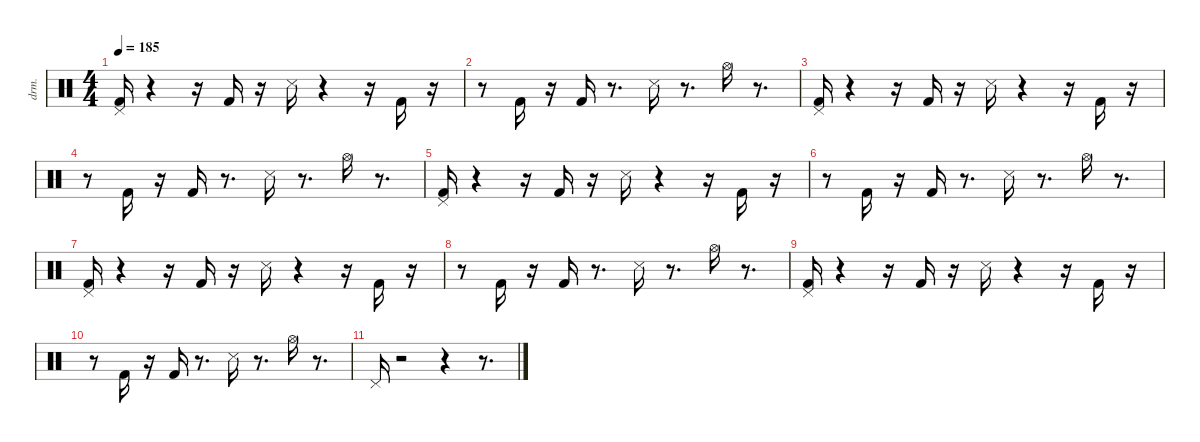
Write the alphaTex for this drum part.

\defaultSystemsLayout 4
\hideDynamics
\bracketExtendMode nobrackets
\otherSystemsTrackNameOrientation horizontal
\track ("drums" "drm.") {instrument percussion}
\staff {score}
\articulation defaults
\ts (4 4)
\tempo 185
\clef neutral
\ks aminor
("Kick (hit) 2" "Pedal Hi-Hat (hit)"{acc #}).16{dy fff beam Up} r.4{beam Up} r.16{beam Up} "Kick (hit) 2".16{dy ff beam Up} r.16{beam Up} "Snare (side stick) 3"{acc #}.16{beam Down} r.4{beam Down} r.16{beam Down} "Kick (hit) 2".16{beam Up} r.16{beam Up} |
r.8{beam Down} "Kick (hit) 2".16{dy f beam Up} r.16{beam Up} "Kick (hit) 2".16{dy ff beam Up} r.8{d beam Up} "Snare (side stick) 3"{acc #}.16{beam Down} r.8{d beam Down} "Hi-Hat (open)"{acc #}.16{beam Down} r.8{d beam Down} |
("Kick (hit) 2" "Pedal Hi-Hat (hit)"{acc #}).16{dy fff beam Up} r.4{beam Up} r.16{beam Up} "Kick (hit) 2".16{dy ff beam Up} r.16{beam Up} "Snare (side stick) 3"{acc #}.16{beam Down} r.4{beam Down} r.16{beam Down} "Kick (hit) 2".16{beam Up} r.16{beam Up} |
r.8{beam Down} "Kick (hit) 2".16{dy f beam Up} r.16{beam Up} "Kick (hit) 2".16{dy ff beam Up} r.8{d beam Up} "Snare (side stick) 3"{acc #}.16{beam Down} r.8{d beam Down} "Hi-Hat (open)"{acc #}.16{beam Down} r.8{d beam Down} |
("Kick (hit) 2" "Pedal Hi-Hat (hit)"{acc #}).16{beam Up} r.4{beam Up} r.16{beam Up} "Kick (hit) 2".16{beam Up} r.16{beam Up} "Snare (side stick) 3"{acc #}.16{beam Down} r.4{beam Down} r.16{beam Down} "Kick (hit) 2".16{beam Up} r.16{beam Up} |
r.8{beam Down} "Kick (hit) 2".16{dy f beam Up} r.16{beam Up} "Kick (hit) 2".16{dy ff beam Up} r.8{d beam Up} "Snare (side stick) 3"{acc #}.16{beam Down} r.8{d beam Down} "Hi-Hat (open)"{acc #}.16{beam Down} r.8{d beam Down} |
("Kick (hit) 2" "Pedal Hi-Hat (hit)"{acc #}).16{dy fff beam Up} r.4{beam Up} r.16{beam Up} "Kick (hit) 2".16{dy ff beam Up} r.16{beam Up} "Snare (side stick) 3"{acc #}.16{beam Down} r.4{beam Down} r.16{beam Down} "Kick (hit) 2".16{beam Up} r.16{beam Up} |
r.8{beam Down} "Kick (hit) 2".16{dy f beam Up} r.16{beam Up} "Kick (hit) 2".16{dy ff beam Up} r.8{d beam Up} "Snare (side stick) 3"{acc #}.16{beam Down} r.8{d beam Down} "Hi-Hat (open)"{acc #}.16{beam Down} r.8{d beam Down} |
("Kick (hit) 2" "Pedal Hi-Hat (hit)"{acc #}).16{dy fff beam Up} r.4{beam Up} r.16{beam Up} "Kick (hit) 2".16{dy ff beam Up} r.16{beam Up} "Snare (side stick) 3"{acc #}.16{beam Down} r.4{beam Down} r.16{beam Down} "Kick (hit) 2".16{beam Up} r.16{beam Up} |
r.8{beam Down} "Kick (hit) 2".16{dy f beam Up} r.16{beam Up} "Kick (hit) 2".16{dy ff beam Up} r.8{d beam Up} "Snare (side stick) 3"{acc #}.16{beam Down} r.8{d beam Down} "Hi-Hat (open)"{acc #}.16{beam Down} r.8{d beam Down} |
"Pedal Hi-Hat (hit)"{acc #}.16{beam Up} r.2{beam Up} r.4{beam Up} r.8{d beam Up}
